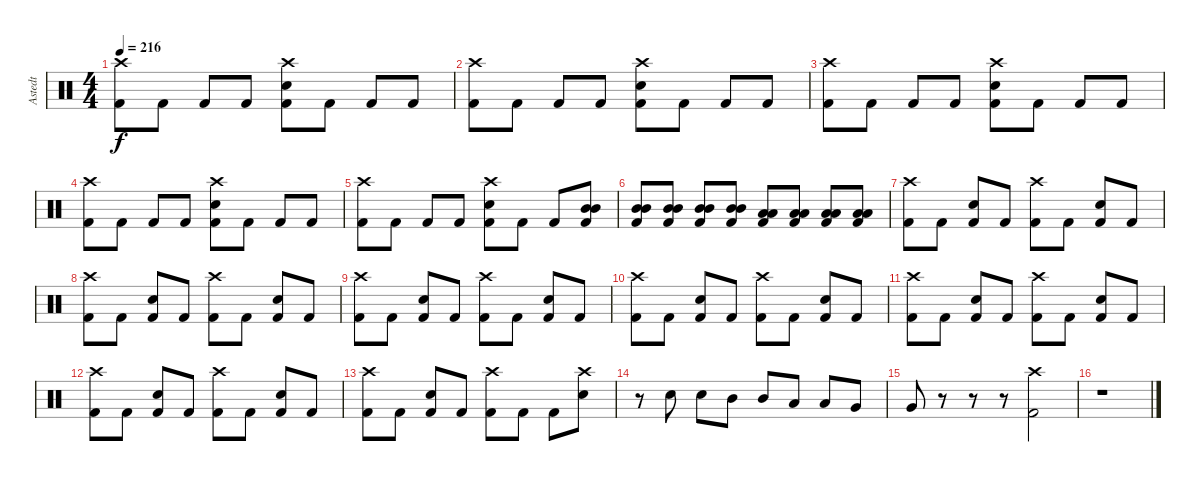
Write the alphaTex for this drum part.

\track ("Astedt" "Astedt") {instrument percussion}
\staff {score}
\articulation defaults
\ts (4 4)
\tempo 216
\clef neutral
\ks c
("Crash high (hit)" "Kick (hit) 2").8{dy f} "Kick (hit) 2".8 "Kick (hit) 2".8 "Kick (hit) 2".8 ("Crash high (hit)" "Snare (hit) 2" "Kick (hit) 2").8 "Kick (hit) 2".8 "Kick (hit) 2".8 "Kick (hit) 2".8 |
("Crash high (hit)" "Kick (hit) 2").8 "Kick (hit) 2".8 "Kick (hit) 2".8 "Kick (hit) 2".8 ("Crash high (hit)" "Snare (hit) 2" "Kick (hit) 2").8 "Kick (hit) 2".8 "Kick (hit) 2".8 "Kick (hit) 2".8 |
("Crash high (hit)" "Kick (hit) 2").8 "Kick (hit) 2".8 "Kick (hit) 2".8 "Kick (hit) 2".8 ("Crash high (hit)" "Snare (hit) 2" "Kick (hit) 2").8 "Kick (hit) 2".8 "Kick (hit) 2".8 "Kick (hit) 2".8 |
("Crash high (hit)" "Kick (hit) 2").8 "Kick (hit) 2".8 "Kick (hit) 2".8 "Kick (hit) 2".8 ("Crash high (hit)" "Snare (hit) 2" "Kick (hit) 2").8 "Kick (hit) 2".8 "Kick (hit) 2".8 "Kick (hit) 2".8 |
("Crash high (hit)" "Kick (hit) 2").8 "Kick (hit) 2".8 "Kick (hit) 2".8 "Kick (hit) 2".8 ("Crash high (hit)" "Snare (hit) 2" "Kick (hit) 2").8 "Kick (hit) 2".8 "Kick (hit) 2".8 ("Mid Tom (hit)" "Mid Tom (hit)" "Kick (hit) 2").8 |
("Mid Tom (hit)" "Mid Tom (hit)" "Kick (hit) 2").8 ("Mid Tom (hit)" "Mid Tom (hit)" "Kick (hit) 2").8 ("Mid Tom (hit)" "Mid Tom (hit)" "Kick (hit) 2").8 ("Mid Tom (hit)" "Mid Tom (hit)" "Kick (hit) 2").8 ("Low Tom (hit)" "Low Tom (hit)" "Kick (hit) 2").8 ("Low Tom (hit)" "Low Tom (hit)" "Kick (hit) 2").8 ("Low Tom (hit)" "Low Tom (hit)" "Kick (hit) 2").8 ("Low Tom (hit)" "Low Tom (hit)" "Kick (hit) 2").8 |
("Crash high (hit)" "Kick (hit) 2").8 "Kick (hit) 2".8 ("Snare (hit) 2" "Kick (hit) 2").8 "Kick (hit) 2".8 ("Crash high (hit)" "Kick (hit) 2").8 "Kick (hit) 2".8 ("Snare (hit) 2" "Kick (hit) 2").8 "Kick (hit) 2".8 |
("Crash high (hit)" "Kick (hit) 2").8 "Kick (hit) 2".8 ("Snare (hit) 2" "Kick (hit) 2").8 "Kick (hit) 2".8 ("Crash high (hit)" "Kick (hit) 2").8 "Kick (hit) 2".8 ("Snare (hit) 2" "Kick (hit) 2").8 "Kick (hit) 2".8 |
("Crash high (hit)" "Kick (hit) 2").8 "Kick (hit) 2".8 ("Snare (hit) 2" "Kick (hit) 2").8 "Kick (hit) 2".8 ("Crash high (hit)" "Kick (hit) 2").8 "Kick (hit) 2".8 ("Snare (hit) 2" "Kick (hit) 2").8 "Kick (hit) 2".8 |
("Crash high (hit)" "Kick (hit) 2").8 "Kick (hit) 2".8 ("Snare (hit) 2" "Kick (hit) 2").8 "Kick (hit) 2".8 ("Crash high (hit)" "Kick (hit) 2").8 "Kick (hit) 2".8 ("Snare (hit) 2" "Kick (hit) 2").8 "Kick (hit) 2".8 |
("Crash high (hit)" "Kick (hit) 2").8 "Kick (hit) 2".8 ("Snare (hit) 2" "Kick (hit) 2").8 "Kick (hit) 2".8 ("Crash high (hit)" "Kick (hit) 2").8 "Kick (hit) 2".8 ("Snare (hit) 2" "Kick (hit) 2").8 "Kick (hit) 2".8 |
("Crash high (hit)" "Kick (hit) 2").8 "Kick (hit) 2".8 ("Snare (hit) 2" "Kick (hit) 2").8 "Kick (hit) 2".8 ("Crash high (hit)" "Kick (hit) 2").8 "Kick (hit) 2".8 ("Snare (hit) 2" "Kick (hit) 2").8 "Kick (hit) 2".8 |
("Crash high (hit)" "Kick (hit) 2").8 "Kick (hit) 2".8 ("Snare (hit) 2" "Kick (hit) 2").8 "Kick (hit) 2".8 ("Crash high (hit)" "Kick (hit) 2").8 "Kick (hit) 2".8 "Kick (hit) 2".8 ("Crash high (hit)" "Snare (hit) 2").8 |
r.8 "Snare (hit) 2".8 "Snare (hit) 2".8 "Mid Tom (hit)".8 "Mid Tom (hit)".8 "Low Tom (hit)".8 "Low Tom (hit)".8 "Very Low Tom (hit)".8 |
"Very Low Tom (hit)".8 r.8 r.8 r.8 ("Crash high (hit)" "Kick (hit) 2").2 |
r.1
